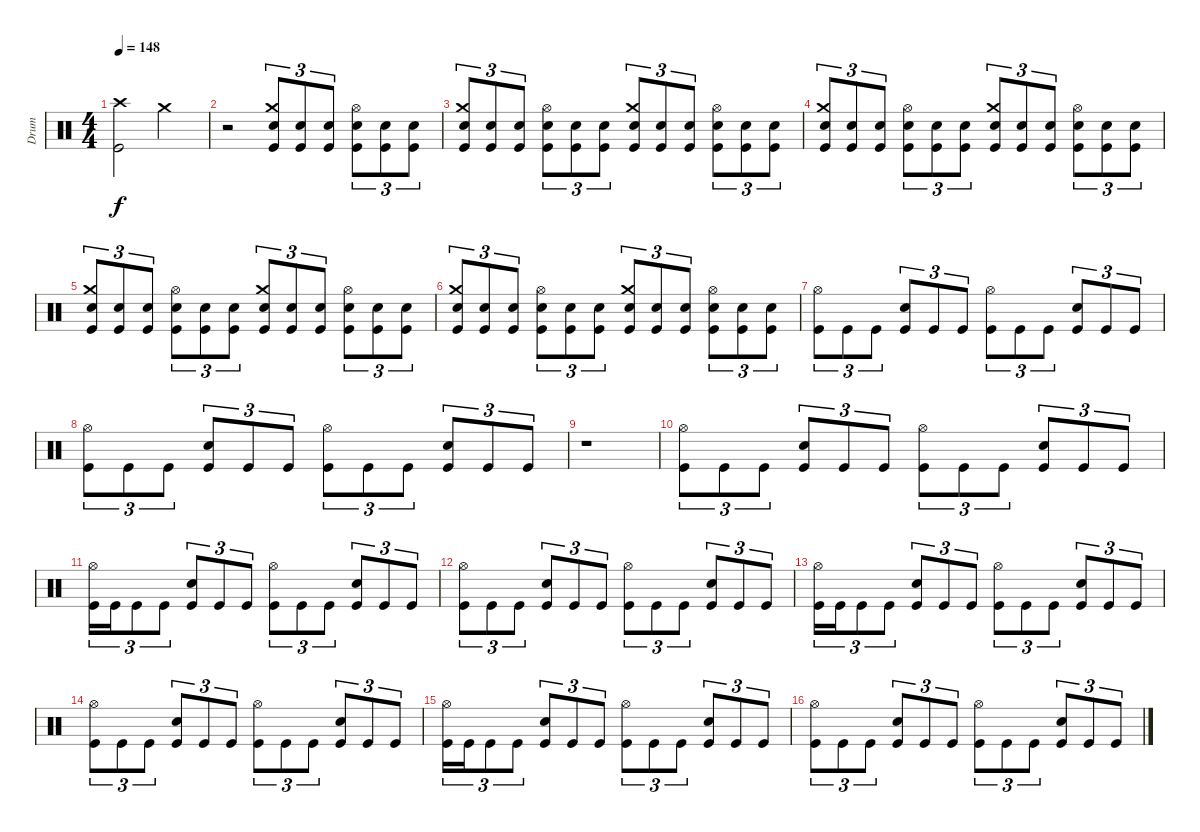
\track ("Drum" "Drum") {instrument percussion}
\staff {score}
\articulation defaults
\ts (4 4)
\tempo 148
\clef neutral
\ks c
("Crash high (hit)" "Kick (hit)").2{dy f} "Crash medium (hit)".2 |
r.2 ("Crash medium (hit)" "Snare (hit) 2" "Kick (hit)").8{tu (3 2)} ("Snare (hit) 2" "Kick (hit)").8{tu (3 2)} ("Snare (hit) 2" "Kick (hit)").8{tu (3 2)} ("Hi-Hat (open)" "Snare (hit) 2" "Kick (hit)").8{tu (3 2)} ("Snare (hit) 2" "Kick (hit)").8{tu (3 2)} ("Snare (hit) 2" "Kick (hit)").8{tu (3 2)} |
("Crash medium (hit)" "Snare (hit) 2" "Kick (hit)").8{tu (3 2)} ("Snare (hit) 2" "Kick (hit)").8{tu (3 2)} ("Snare (hit) 2" "Kick (hit)").8{tu (3 2)} ("Hi-Hat (open)" "Snare (hit) 2" "Kick (hit)").8{tu (3 2)} ("Snare (hit) 2" "Kick (hit)").8{tu (3 2)} ("Snare (hit) 2" "Kick (hit)").8{tu (3 2)} ("Crash medium (hit)" "Snare (hit) 2" "Kick (hit)").8{tu (3 2)} ("Snare (hit) 2" "Kick (hit)").8{tu (3 2)} ("Snare (hit) 2" "Kick (hit)").8{tu (3 2)} ("Hi-Hat (open)" "Snare (hit) 2" "Kick (hit)").8{tu (3 2)} ("Snare (hit) 2" "Kick (hit)").8{tu (3 2)} ("Snare (hit) 2" "Kick (hit)").8{tu (3 2)} |
("Crash medium (hit)" "Snare (hit) 2" "Kick (hit)").8{tu (3 2)} ("Snare (hit) 2" "Kick (hit)").8{tu (3 2)} ("Snare (hit) 2" "Kick (hit)").8{tu (3 2)} ("Hi-Hat (open)" "Snare (hit) 2" "Kick (hit)").8{tu (3 2)} ("Snare (hit) 2" "Kick (hit)").8{tu (3 2)} ("Snare (hit) 2" "Kick (hit)").8{tu (3 2)} ("Crash medium (hit)" "Snare (hit) 2" "Kick (hit)").8{tu (3 2)} ("Snare (hit) 2" "Kick (hit)").8{tu (3 2)} ("Snare (hit) 2" "Kick (hit)").8{tu (3 2)} ("Hi-Hat (open)" "Snare (hit) 2" "Kick (hit)").8{tu (3 2)} ("Snare (hit) 2" "Kick (hit)").8{tu (3 2)} ("Snare (hit) 2" "Kick (hit)").8{tu (3 2)} |
("Crash medium (hit)" "Snare (hit) 2" "Kick (hit)").8{tu (3 2)} ("Snare (hit) 2" "Kick (hit)").8{tu (3 2)} ("Snare (hit) 2" "Kick (hit)").8{tu (3 2)} ("Hi-Hat (open)" "Snare (hit) 2" "Kick (hit)").8{tu (3 2)} ("Snare (hit) 2" "Kick (hit)").8{tu (3 2)} ("Snare (hit) 2" "Kick (hit)").8{tu (3 2)} ("Crash medium (hit)" "Snare (hit) 2" "Kick (hit)").8{tu (3 2)} ("Snare (hit) 2" "Kick (hit)").8{tu (3 2)} ("Snare (hit) 2" "Kick (hit)").8{tu (3 2)} ("Hi-Hat (open)" "Snare (hit) 2" "Kick (hit)").8{tu (3 2)} ("Snare (hit) 2" "Kick (hit)").8{tu (3 2)} ("Snare (hit) 2" "Kick (hit)").8{tu (3 2)} |
("Crash medium (hit)" "Snare (hit) 2" "Kick (hit)").8{tu (3 2)} ("Snare (hit) 2" "Kick (hit)").8{tu (3 2)} ("Snare (hit) 2" "Kick (hit)").8{tu (3 2)} ("Hi-Hat (open)" "Snare (hit) 2" "Kick (hit)").8{tu (3 2)} ("Snare (hit) 2" "Kick (hit)").8{tu (3 2)} ("Snare (hit) 2" "Kick (hit)").8{tu (3 2)} ("Crash medium (hit)" "Snare (hit) 2" "Kick (hit)").8{tu (3 2)} ("Snare (hit) 2" "Kick (hit)").8{tu (3 2)} ("Snare (hit) 2" "Kick (hit)").8{tu (3 2)} ("Hi-Hat (open)" "Snare (hit) 2" "Kick (hit)").8{tu (3 2)} ("Snare (hit) 2" "Kick (hit)").8{tu (3 2)} ("Snare (hit) 2" "Kick (hit)").8{tu (3 2)} |
("Hi-Hat (open)" "Kick (hit)").8{tu (3 2)} "Kick (hit)".8{tu (3 2)} "Kick (hit)".8{tu (3 2)} ("Snare (hit) 2" "Kick (hit)").8{tu (3 2)} "Kick (hit)".8{tu (3 2)} "Kick (hit)".8{tu (3 2)} ("Hi-Hat (open)" "Kick (hit)").8{tu (3 2)} "Kick (hit)".8{tu (3 2)} "Kick (hit)".8{tu (3 2)} ("Snare (hit) 2" "Kick (hit)").8{tu (3 2)} "Kick (hit)".8{tu (3 2)} "Kick (hit)".8{tu (3 2)} |
("Hi-Hat (open)" "Kick (hit)").8{tu (3 2)} "Kick (hit)".8{tu (3 2)} "Kick (hit)".8{tu (3 2)} ("Snare (hit) 2" "Kick (hit)").8{tu (3 2)} "Kick (hit)".8{tu (3 2)} "Kick (hit)".8{tu (3 2)} ("Hi-Hat (open)" "Kick (hit)").8{tu (3 2)} "Kick (hit)".8{tu (3 2)} "Kick (hit)".8{tu (3 2)} ("Snare (hit) 2" "Kick (hit)").8{tu (3 2)} "Kick (hit)".8{tu (3 2)} "Kick (hit)".8{tu (3 2)} |
r.1 |
("Hi-Hat (open)" "Kick (hit)").8{tu (3 2)} "Kick (hit)".8{tu (3 2)} "Kick (hit)".8{tu (3 2)} ("Snare (hit) 2" "Kick (hit)").8{tu (3 2)} "Kick (hit)".8{tu (3 2)} "Kick (hit)".8{tu (3 2)} ("Hi-Hat (open)" "Kick (hit)").8{tu (3 2)} "Kick (hit)".8{tu (3 2)} "Kick (hit)".8{tu (3 2)} ("Snare (hit) 2" "Kick (hit)").8{tu (3 2)} "Kick (hit)".8{tu (3 2)} "Kick (hit)".8{tu (3 2)} |
("Hi-Hat (open)" "Kick (hit)").16{tu (3 2)} "Kick (hit)".16{tu (3 2)} "Kick (hit)".8{tu (3 2)} "Kick (hit)".8{tu (3 2)} ("Snare (hit) 2" "Kick (hit)").8{tu (3 2)} "Kick (hit)".8{tu (3 2)} "Kick (hit)".8{tu (3 2)} ("Hi-Hat (open)" "Kick (hit)").8{tu (3 2)} "Kick (hit)".8{tu (3 2)} "Kick (hit)".8{tu (3 2)} ("Snare (hit) 2" "Kick (hit)").8{tu (3 2)} "Kick (hit)".8{tu (3 2)} "Kick (hit)".8{tu (3 2)} |
("Hi-Hat (open)" "Kick (hit)").8{tu (3 2)} "Kick (hit)".8{tu (3 2)} "Kick (hit)".8{tu (3 2)} ("Snare (hit) 2" "Kick (hit)").8{tu (3 2)} "Kick (hit)".8{tu (3 2)} "Kick (hit)".8{tu (3 2)} ("Hi-Hat (open)" "Kick (hit)").8{tu (3 2)} "Kick (hit)".8{tu (3 2)} "Kick (hit)".8{tu (3 2)} ("Snare (hit) 2" "Kick (hit)").8{tu (3 2)} "Kick (hit)".8{tu (3 2)} "Kick (hit)".8{tu (3 2)} |
("Hi-Hat (open)" "Kick (hit)").16{tu (3 2)} "Kick (hit)".16{tu (3 2)} "Kick (hit)".8{tu (3 2)} "Kick (hit)".8{tu (3 2)} ("Snare (hit) 2" "Kick (hit)").8{tu (3 2)} "Kick (hit)".8{tu (3 2)} "Kick (hit)".8{tu (3 2)} ("Hi-Hat (open)" "Kick (hit)").8{tu (3 2)} "Kick (hit)".8{tu (3 2)} "Kick (hit)".8{tu (3 2)} ("Snare (hit) 2" "Kick (hit)").8{tu (3 2)} "Kick (hit)".8{tu (3 2)} "Kick (hit)".8{tu (3 2)} |
("Hi-Hat (open)" "Kick (hit)").8{tu (3 2)} "Kick (hit)".8{tu (3 2)} "Kick (hit)".8{tu (3 2)} ("Snare (hit) 2" "Kick (hit)").8{tu (3 2)} "Kick (hit)".8{tu (3 2)} "Kick (hit)".8{tu (3 2)} ("Hi-Hat (open)" "Kick (hit)").8{tu (3 2)} "Kick (hit)".8{tu (3 2)} "Kick (hit)".8{tu (3 2)} ("Snare (hit) 2" "Kick (hit)").8{tu (3 2)} "Kick (hit)".8{tu (3 2)} "Kick (hit)".8{tu (3 2)} |
("Hi-Hat (open)" "Kick (hit)").16{tu (3 2)} "Kick (hit)".16{tu (3 2)} "Kick (hit)".8{tu (3 2)} "Kick (hit)".8{tu (3 2)} ("Snare (hit) 2" "Kick (hit)").8{tu (3 2)} "Kick (hit)".8{tu (3 2)} "Kick (hit)".8{tu (3 2)} ("Hi-Hat (open)" "Kick (hit)").8{tu (3 2)} "Kick (hit)".8{tu (3 2)} "Kick (hit)".8{tu (3 2)} ("Snare (hit) 2" "Kick (hit)").8{tu (3 2)} "Kick (hit)".8{tu (3 2)} "Kick (hit)".8{tu (3 2)} |
("Hi-Hat (open)" "Kick (hit)").8{tu (3 2)} "Kick (hit)".8{tu (3 2)} "Kick (hit)".8{tu (3 2)} ("Snare (hit) 2" "Kick (hit)").8{tu (3 2)} "Kick (hit)".8{tu (3 2)} "Kick (hit)".8{tu (3 2)} ("Hi-Hat (open)" "Kick (hit)").8{tu (3 2)} "Kick (hit)".8{tu (3 2)} "Kick (hit)".8{tu (3 2)} ("Snare (hit) 2" "Kick (hit)").8{tu (3 2)} "Kick (hit)".8{tu (3 2)} "Kick (hit)".8{tu (3 2)}
